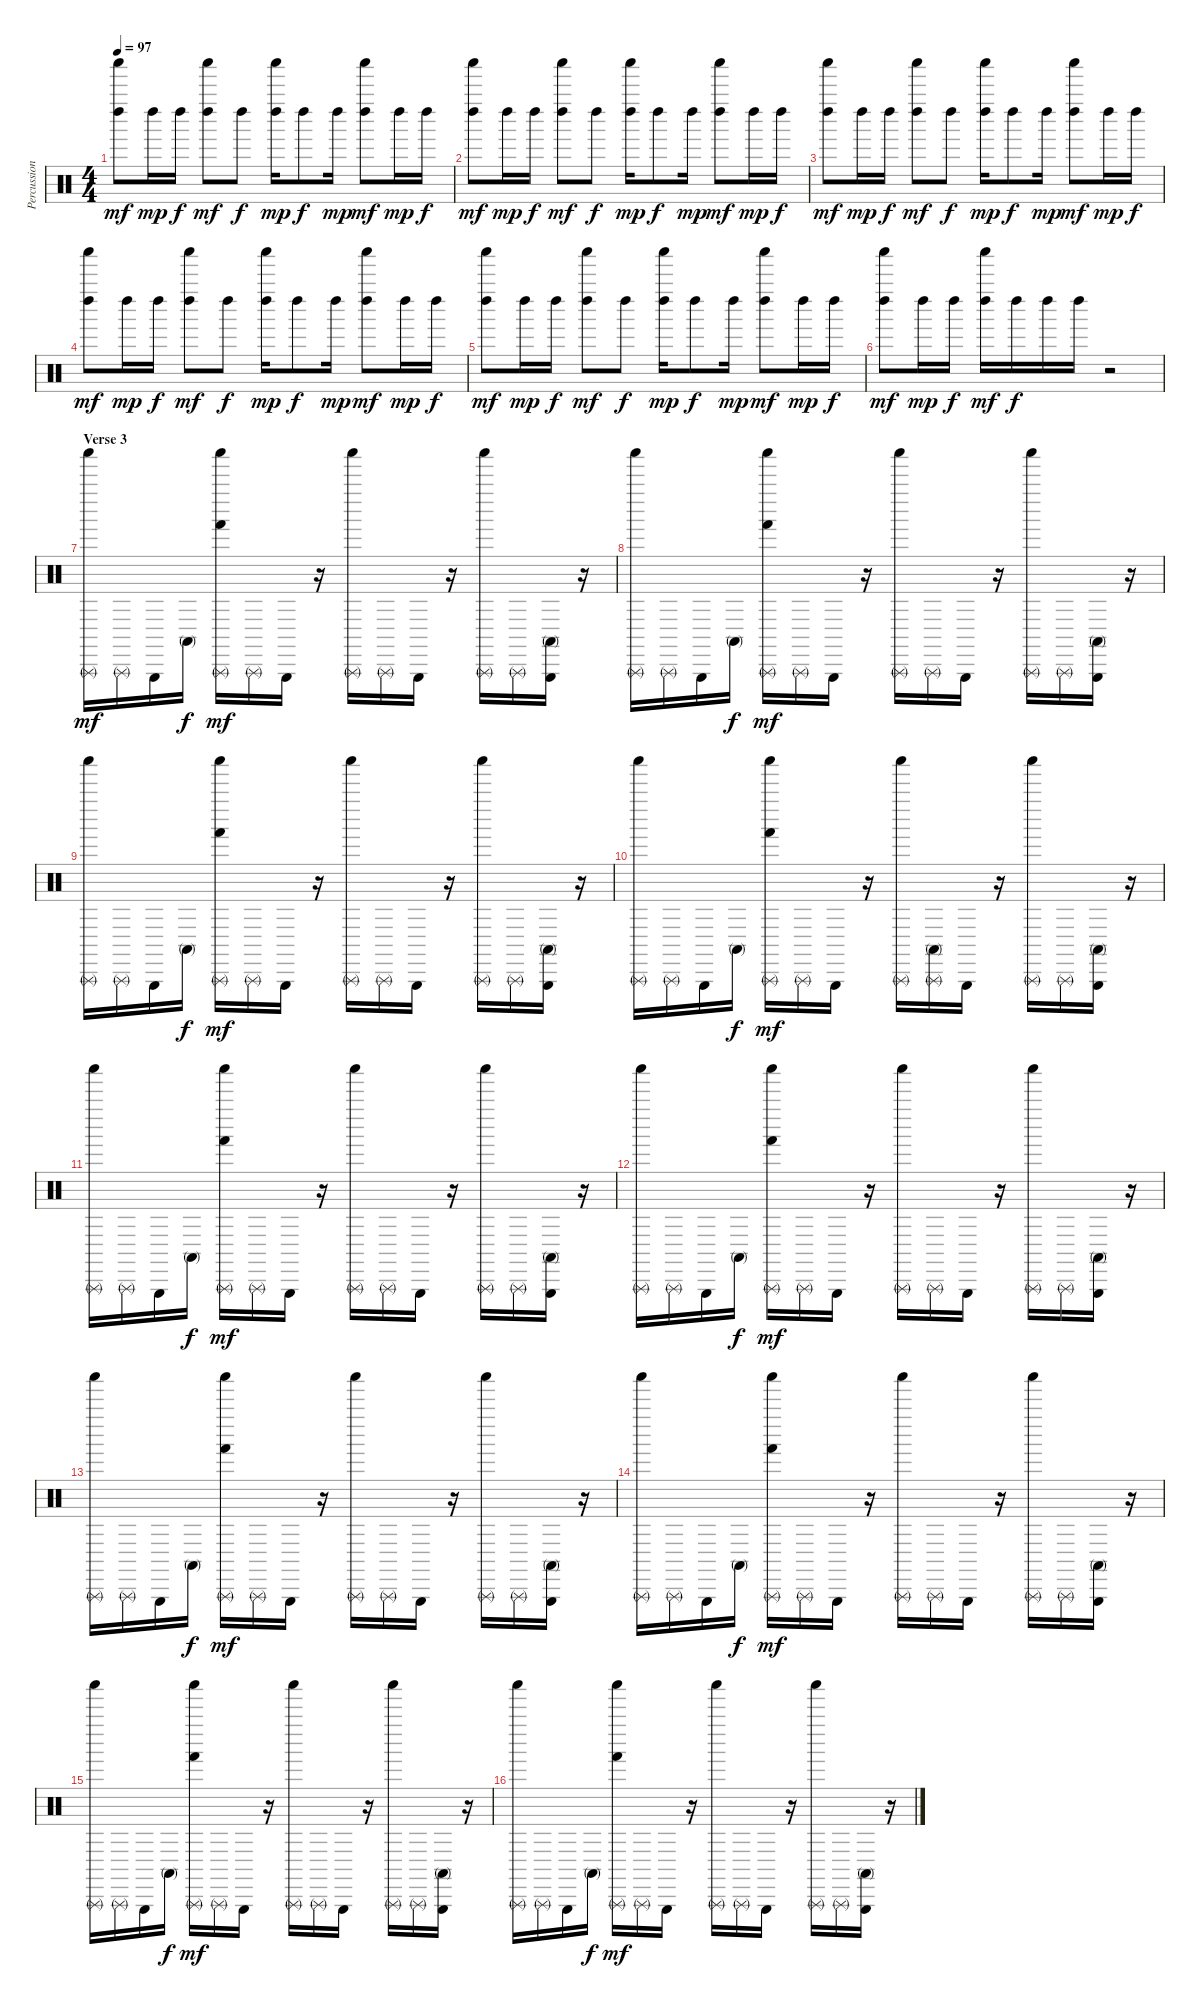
\track ("Percussions" "Percussion") {instrument percussion}
\staff {score}
\articulation defaults
\ts (4 4)
\tempo 97
\clef neutral
\ks c
("Shaker (hit)" "Left Maraca (hit)").8{dy mf} "Left Maraca (hit)".16{dy mp} "Left Maraca (hit)".16{dy f} ("Shaker (hit)" "Left Maraca (hit)").8{dy mf} "Left Maraca (hit)".8{dy f} ("Shaker (hit)" "Left Maraca (hit)").16{dy mp} "Left Maraca (hit)".8{dy f} "Left Maraca (hit)".16{dy mp} ("Shaker (hit)" "Left Maraca (hit)").8{dy mf} "Left Maraca (hit)".16{dy mp} "Left Maraca (hit)".16{dy f} |
("Shaker (hit)" "Left Maraca (hit)").8{dy mf} "Left Maraca (hit)".16{dy mp} "Left Maraca (hit)".16{dy f} ("Shaker (hit)" "Left Maraca (hit)").8{dy mf} "Left Maraca (hit)".8{dy f} ("Shaker (hit)" "Left Maraca (hit)").16{dy mp} "Left Maraca (hit)".8{dy f} "Left Maraca (hit)".16{dy mp} ("Shaker (hit)" "Left Maraca (hit)").8{dy mf} "Left Maraca (hit)".16{dy mp} "Left Maraca (hit)".16{dy f} |
("Shaker (hit)" "Left Maraca (hit)").8{dy mf} "Left Maraca (hit)".16{dy mp} "Left Maraca (hit)".16{dy f} ("Shaker (hit)" "Left Maraca (hit)").8{dy mf} "Left Maraca (hit)".8{dy f} ("Shaker (hit)" "Left Maraca (hit)").16{dy mp} "Left Maraca (hit)".8{dy f} "Left Maraca (hit)".16{dy mp} ("Shaker (hit)" "Left Maraca (hit)").8{dy mf} "Left Maraca (hit)".16{dy mp} "Left Maraca (hit)".16{dy f} |
("Shaker (hit)" "Left Maraca (hit)").8{dy mf} "Left Maraca (hit)".16{dy mp} "Left Maraca (hit)".16{dy f} ("Shaker (hit)" "Left Maraca (hit)").8{dy mf} "Left Maraca (hit)".8{dy f} ("Shaker (hit)" "Left Maraca (hit)").16{dy mp} "Left Maraca (hit)".8{dy f} "Left Maraca (hit)".16{dy mp} ("Shaker (hit)" "Left Maraca (hit)").8{dy mf} "Left Maraca (hit)".16{dy mp} "Left Maraca (hit)".16{dy f} |
("Shaker (hit)" "Left Maraca (hit)").8{dy mf} "Left Maraca (hit)".16{dy mp} "Left Maraca (hit)".16{dy f} ("Shaker (hit)" "Left Maraca (hit)").8{dy mf} "Left Maraca (hit)".8{dy f} ("Shaker (hit)" "Left Maraca (hit)").16{dy mp} "Left Maraca (hit)".8{dy f} "Left Maraca (hit)".16{dy mp} ("Shaker (hit)" "Left Maraca (hit)").8{dy mf} "Left Maraca (hit)".16{dy mp} "Left Maraca (hit)".16{dy f} |
("Shaker (hit)" "Left Maraca (hit)").8{dy mf} "Left Maraca (hit)".16{dy mp} "Left Maraca (hit)".16{dy f} ("Shaker (hit)" "Left Maraca (hit)").16{dy mf} "Left Maraca (hit)".16{dy f} "Left Maraca (hit)".16 "Left Maraca (hit)".16 r.2 |
\section ("" "Verse 3")
("Triangle (rnute)" "Shaker (hit)").16{dy mf} "Triangle (rnute)".16 "Triangle (hit)".16 "Conga high (mute)".16{dy f} ("Triangle (rnute)" "Shaker (hit)" "Hand (hit)").16{dy mf} "Triangle (rnute)".16 "Triangle (hit)".16 r.16 ("Triangle (rnute)" "Shaker (hit)").16 "Triangle (rnute)".16 "Triangle (hit)".16 r.16 ("Triangle (rnute)" "Shaker (hit)").16 "Triangle (rnute)".16 ("Triangle (hit)" "Conga high (mute)").16 r.16 |
("Triangle (rnute)" "Shaker (hit)").16 "Triangle (rnute)".16 "Triangle (hit)".16 "Conga high (mute)".16{dy f} ("Triangle (rnute)" "Shaker (hit)" "Hand (hit)").16{dy mf} "Triangle (rnute)".16 "Triangle (hit)".16 r.16 ("Triangle (rnute)" "Shaker (hit)").16 "Triangle (rnute)".16 "Triangle (hit)".16 r.16 ("Triangle (rnute)" "Shaker (hit)").16 "Triangle (rnute)".16 ("Triangle (hit)" "Conga high (mute)").16 r.16 |
("Triangle (rnute)" "Shaker (hit)").16 "Triangle (rnute)".16 "Triangle (hit)".16 "Conga high (mute)".16{dy f} ("Triangle (rnute)" "Shaker (hit)" "Hand (hit)").16{dy mf} "Triangle (rnute)".16 "Triangle (hit)".16 r.16 ("Triangle (rnute)" "Shaker (hit)").16 "Triangle (rnute)".16 "Triangle (hit)".16 r.16 ("Triangle (rnute)" "Shaker (hit)").16 "Triangle (rnute)".16 ("Triangle (hit)" "Conga high (mute)").16 r.16 |
("Triangle (rnute)" "Shaker (hit)").16 "Triangle (rnute)".16 "Triangle (hit)".16 "Conga high (mute)".16{dy f} ("Triangle (rnute)" "Shaker (hit)" "Hand (hit)").16{dy mf} "Triangle (rnute)".16 "Triangle (hit)".16 r.16 ("Triangle (rnute)" "Shaker (hit)").16 ("Triangle (rnute)" "Conga high (mute)").16 "Triangle (hit)".16 r.16 ("Triangle (rnute)" "Shaker (hit)").16 "Triangle (rnute)".16 ("Triangle (hit)" "Conga high (mute)").16 r.16 |
("Triangle (rnute)" "Shaker (hit)").16 "Triangle (rnute)".16 "Triangle (hit)".16 "Conga high (mute)".16{dy f} ("Triangle (rnute)" "Shaker (hit)" "Hand (hit)").16{dy mf} "Triangle (rnute)".16 "Triangle (hit)".16 r.16 ("Triangle (rnute)" "Shaker (hit)").16 "Triangle (rnute)".16 "Triangle (hit)".16 r.16 ("Triangle (rnute)" "Shaker (hit)").16 "Triangle (rnute)".16 ("Triangle (hit)" "Conga high (mute)").16 r.16 |
("Triangle (rnute)" "Shaker (hit)").16 "Triangle (rnute)".16 "Triangle (hit)".16 "Conga high (mute)".16{dy f} ("Triangle (rnute)" "Shaker (hit)" "Hand (hit)").16{dy mf} "Triangle (rnute)".16 "Triangle (hit)".16 r.16 ("Triangle (rnute)" "Shaker (hit)").16 "Triangle (rnute)".16 "Triangle (hit)".16 r.16 ("Triangle (rnute)" "Shaker (hit)").16 "Triangle (rnute)".16 ("Triangle (hit)" "Conga high (mute)").16 r.16 |
("Triangle (rnute)" "Shaker (hit)").16 "Triangle (rnute)".16 "Triangle (hit)".16 "Conga high (mute)".16{dy f} ("Triangle (rnute)" "Shaker (hit)" "Hand (hit)").16{dy mf} "Triangle (rnute)".16 "Triangle (hit)".16 r.16 ("Triangle (rnute)" "Shaker (hit)").16 "Triangle (rnute)".16 "Triangle (hit)".16 r.16 ("Triangle (rnute)" "Shaker (hit)").16 "Triangle (rnute)".16 ("Triangle (hit)" "Conga high (mute)").16 r.16 |
("Triangle (rnute)" "Shaker (hit)").16 "Triangle (rnute)".16 "Triangle (hit)".16 "Conga high (mute)".16{dy f} ("Triangle (rnute)" "Shaker (hit)" "Hand (hit)").16{dy mf} "Triangle (rnute)".16 "Triangle (hit)".16 r.16 ("Triangle (rnute)" "Shaker (hit)").16 "Triangle (rnute)".16 "Triangle (hit)".16 r.16 ("Triangle (rnute)" "Shaker (hit)").16 "Triangle (rnute)".16 ("Triangle (hit)" "Conga high (mute)").16 r.16 |
("Triangle (rnute)" "Shaker (hit)").16 "Triangle (rnute)".16 "Triangle (hit)".16 "Conga high (mute)".16{dy f} ("Triangle (rnute)" "Shaker (hit)" "Hand (hit)").16{dy mf} "Triangle (rnute)".16 "Triangle (hit)".16 r.16 ("Triangle (rnute)" "Shaker (hit)").16 "Triangle (rnute)".16 "Triangle (hit)".16 r.16 ("Triangle (rnute)" "Shaker (hit)").16 "Triangle (rnute)".16 ("Triangle (hit)" "Conga high (mute)").16 r.16 |
("Triangle (rnute)" "Shaker (hit)").16 "Triangle (rnute)".16 "Triangle (hit)".16 "Conga high (mute)".16{dy f} ("Triangle (rnute)" "Shaker (hit)" "Hand (hit)").16{dy mf} "Triangle (rnute)".16 "Triangle (hit)".16 r.16 ("Triangle (rnute)" "Shaker (hit)").16 "Triangle (rnute)".16 "Triangle (hit)".16 r.16 ("Triangle (rnute)" "Shaker (hit)").16 "Triangle (rnute)".16 ("Triangle (hit)" "Conga high (mute)").16 r.16
